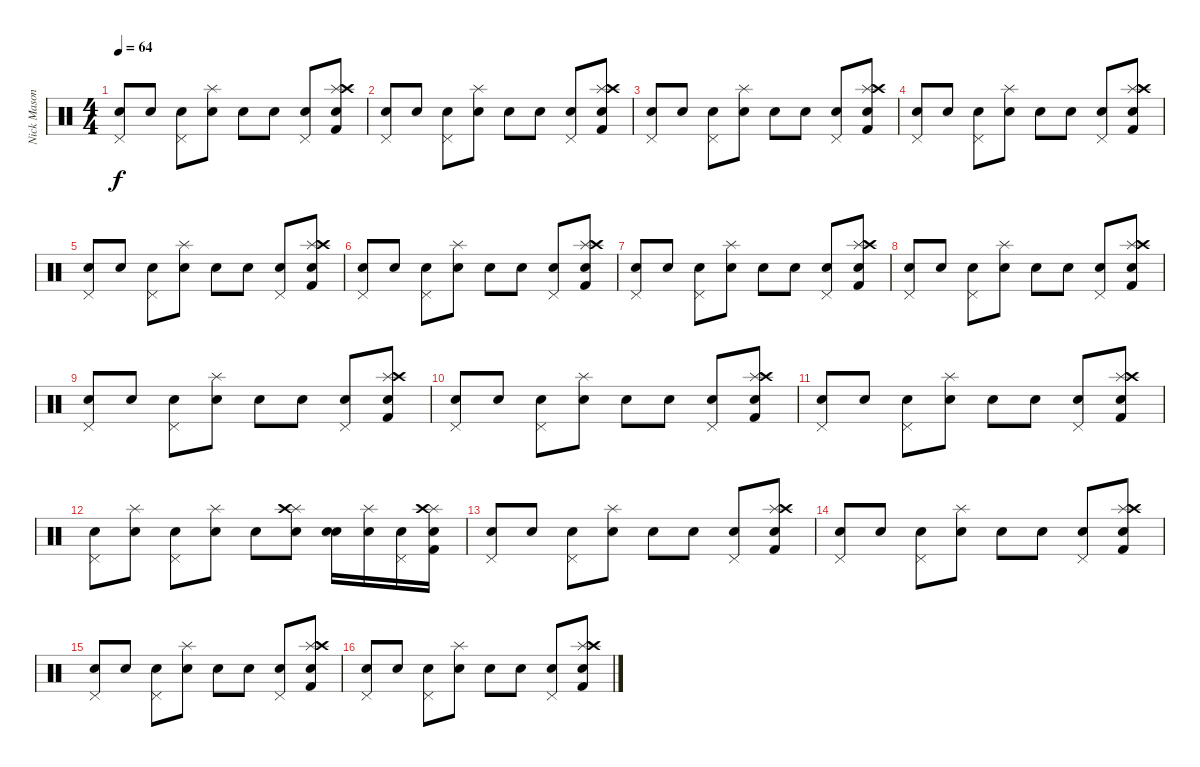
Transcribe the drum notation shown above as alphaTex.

\track ("Nick Mason" "Nick Mason") {instrument percussion}
\staff {score}
\articulation defaults
\ts (4 4)
\tempo 64
\clef neutral
\ks c
("Pedal Hi-Hat (hit)" "Snare (hit) 2").8{dy f} "Electric Snare (hit)".8 ("Pedal Hi-Hat (hit)" "Snare (hit) 2").8 ("Splash (hit)" "Electric Snare (hit)").8 "Snare (hit) 2".8 "Electric Snare (hit)".8 ("Pedal Hi-Hat (hit)" "Snare (hit) 2").8 ("Splash (hit)" "Crash high (hit)" "Electric Snare (hit)" "Kick (hit) 2").8 |
("Pedal Hi-Hat (hit)" "Snare (hit) 2").8 "Electric Snare (hit)".8 ("Pedal Hi-Hat (hit)" "Snare (hit) 2").8 ("Splash (hit)" "Electric Snare (hit)").8 "Snare (hit) 2".8 "Electric Snare (hit)".8 ("Pedal Hi-Hat (hit)" "Snare (hit) 2").8 ("Splash (hit)" "Crash high (hit)" "Electric Snare (hit)" "Kick (hit) 2").8 |
("Pedal Hi-Hat (hit)" "Snare (hit) 2").8 "Electric Snare (hit)".8 ("Pedal Hi-Hat (hit)" "Snare (hit) 2").8 ("Splash (hit)" "Electric Snare (hit)").8 "Snare (hit) 2".8 "Electric Snare (hit)".8 ("Pedal Hi-Hat (hit)" "Snare (hit) 2").8 ("Splash (hit)" "Crash high (hit)" "Electric Snare (hit)" "Kick (hit) 2").8 |
("Pedal Hi-Hat (hit)" "Snare (hit) 2").8 "Electric Snare (hit)".8 ("Pedal Hi-Hat (hit)" "Snare (hit) 2").8 ("Splash (hit)" "Electric Snare (hit)").8 "Snare (hit) 2".8 "Electric Snare (hit)".8 ("Pedal Hi-Hat (hit)" "Snare (hit) 2").8 ("Splash (hit)" "Crash high (hit)" "Electric Snare (hit)" "Kick (hit) 2").8 |
("Pedal Hi-Hat (hit)" "Snare (hit) 2").8 "Electric Snare (hit)".8 ("Pedal Hi-Hat (hit)" "Snare (hit) 2").8 ("Splash (hit)" "Electric Snare (hit)").8 "Snare (hit) 2".8 "Electric Snare (hit)".8 ("Pedal Hi-Hat (hit)" "Snare (hit) 2").8 ("Splash (hit)" "Crash high (hit)" "Electric Snare (hit)" "Kick (hit) 2").8 |
("Pedal Hi-Hat (hit)" "Snare (hit) 2").8 "Electric Snare (hit)".8 ("Pedal Hi-Hat (hit)" "Snare (hit) 2").8 ("Splash (hit)" "Electric Snare (hit)").8 "Snare (hit) 2".8 "Electric Snare (hit)".8 ("Pedal Hi-Hat (hit)" "Snare (hit) 2").8 ("Splash (hit)" "Crash high (hit)" "Electric Snare (hit)" "Kick (hit) 2").8 |
("Pedal Hi-Hat (hit)" "Snare (hit) 2").8 "Electric Snare (hit)".8 ("Pedal Hi-Hat (hit)" "Snare (hit) 2").8 ("Splash (hit)" "Electric Snare (hit)").8 "Snare (hit) 2".8 "Electric Snare (hit)".8 ("Pedal Hi-Hat (hit)" "Snare (hit) 2").8 ("Splash (hit)" "Crash high (hit)" "Electric Snare (hit)" "Kick (hit) 2").8 |
("Pedal Hi-Hat (hit)" "Snare (hit) 2").8 "Electric Snare (hit)".8 ("Pedal Hi-Hat (hit)" "Snare (hit) 2").8 ("Splash (hit)" "Electric Snare (hit)").8 "Snare (hit) 2".8 "Electric Snare (hit)".8 ("Pedal Hi-Hat (hit)" "Snare (hit) 2").8 ("Splash (hit)" "Crash high (hit)" "Electric Snare (hit)" "Kick (hit) 2").8 |
("Pedal Hi-Hat (hit)" "Snare (hit) 2").8 "Electric Snare (hit)".8 ("Pedal Hi-Hat (hit)" "Snare (hit) 2").8 ("Splash (hit)" "Electric Snare (hit)").8 "Snare (hit) 2".8 "Electric Snare (hit)".8 ("Pedal Hi-Hat (hit)" "Snare (hit) 2").8 ("Splash (hit)" "Crash high (hit)" "Electric Snare (hit)" "Kick (hit) 2").8 |
("Pedal Hi-Hat (hit)" "Snare (hit) 2").8 "Electric Snare (hit)".8 ("Pedal Hi-Hat (hit)" "Snare (hit) 2").8 ("Splash (hit)" "Electric Snare (hit)").8 "Snare (hit) 2".8 "Electric Snare (hit)".8 ("Pedal Hi-Hat (hit)" "Snare (hit) 2").8 ("Splash (hit)" "Crash high (hit)" "Electric Snare (hit)" "Kick (hit) 2").8 |
("Pedal Hi-Hat (hit)" "Snare (hit) 2").8 "Electric Snare (hit)".8 ("Pedal Hi-Hat (hit)" "Snare (hit) 2").8 ("Splash (hit)" "Electric Snare (hit)").8 "Snare (hit) 2".8 "Electric Snare (hit)".8 ("Pedal Hi-Hat (hit)" "Snare (hit) 2").8 ("Splash (hit)" "Crash high (hit)" "Electric Snare (hit)" "Kick (hit) 2").8 |
("Pedal Hi-Hat (hit)" "Snare (hit) 2").8 ("Splash (hit)" "Electric Snare (hit)").8 ("Pedal Hi-Hat (hit)" "Snare (hit) 2").8 ("Splash (hit)" "Electric Snare (hit)").8 "Snare (hit) 2".8 ("Splash (hit)" "Crash high (hit)" "Snare (hit) 2").8 ("Electric Snare (hit)" "Snare (hit) 2").16 ("Splash (hit)" "Snare (hit) 2").16 ("Pedal Hi-Hat (hit)" "Snare (hit) 2").16 ("Splash (hit)" "Crash high (hit)" "Electric Snare (hit)" "Kick (hit) 2").16 |
("Pedal Hi-Hat (hit)" "Snare (hit) 2").8 "Electric Snare (hit)".8 ("Pedal Hi-Hat (hit)" "Snare (hit) 2").8 ("Splash (hit)" "Electric Snare (hit)").8 "Snare (hit) 2".8 "Electric Snare (hit)".8 ("Pedal Hi-Hat (hit)" "Snare (hit) 2").8 ("Splash (hit)" "Crash high (hit)" "Electric Snare (hit)" "Kick (hit) 2").8 |
("Pedal Hi-Hat (hit)" "Snare (hit) 2").8 "Electric Snare (hit)".8 ("Pedal Hi-Hat (hit)" "Snare (hit) 2").8 ("Splash (hit)" "Electric Snare (hit)").8 "Snare (hit) 2".8 "Electric Snare (hit)".8 ("Pedal Hi-Hat (hit)" "Snare (hit) 2").8 ("Splash (hit)" "Crash high (hit)" "Electric Snare (hit)" "Kick (hit) 2").8 |
("Pedal Hi-Hat (hit)" "Snare (hit) 2").8 "Electric Snare (hit)".8 ("Pedal Hi-Hat (hit)" "Snare (hit) 2").8 ("Splash (hit)" "Electric Snare (hit)").8 "Snare (hit) 2".8 "Electric Snare (hit)".8 ("Pedal Hi-Hat (hit)" "Snare (hit) 2").8 ("Splash (hit)" "Crash high (hit)" "Electric Snare (hit)" "Kick (hit) 2").8 |
("Pedal Hi-Hat (hit)" "Snare (hit) 2").8 "Electric Snare (hit)".8 ("Pedal Hi-Hat (hit)" "Snare (hit) 2").8 ("Splash (hit)" "Electric Snare (hit)").8 "Snare (hit) 2".8 "Electric Snare (hit)".8 ("Pedal Hi-Hat (hit)" "Snare (hit) 2").8 ("Splash (hit)" "Crash high (hit)" "Electric Snare (hit)" "Kick (hit) 2").8
